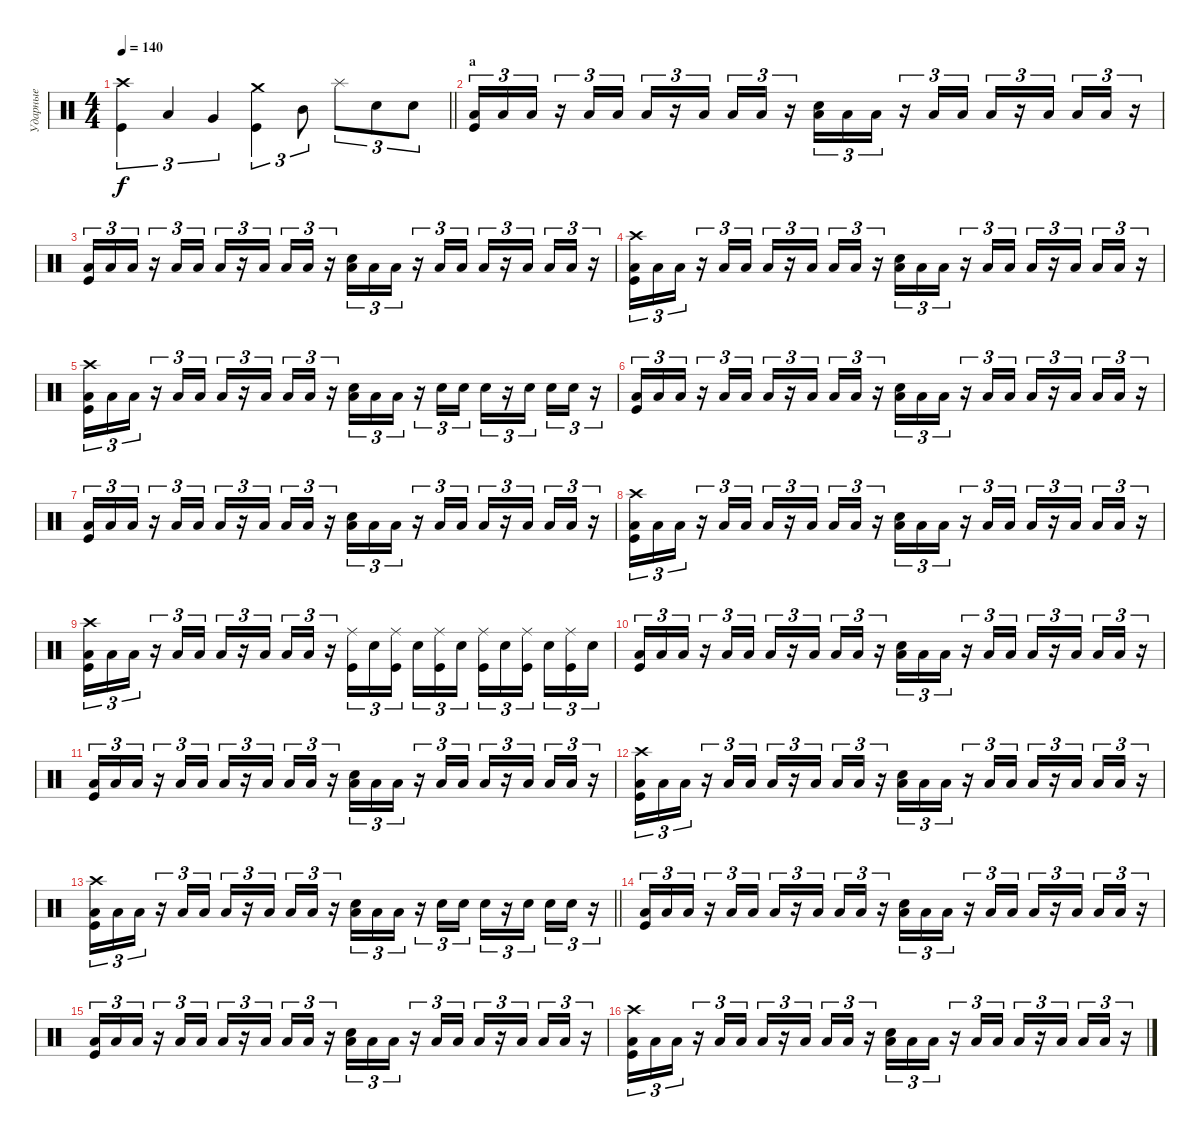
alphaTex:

\track ("Ударные" "Ударные") {instrument percussion}
\staff {score}
\articulation defaults
\ts (4 4)
\tempo 140
\clef neutral
\barLineRight lightlight
\ks c
("Crash high (hit)" "Kick (hit)").4{tu (3 2) dy f} "Low Tom (hit)".4{tu (3 2)} "Very Low Tom (hit)".4{tu (3 2)} ("Crash medium (hit)" "Kick (hit)").4{tu (3 2)} "Mid Tom (hit)".8{tu (3 2)} "Splash (hit)".8{tu (3 2)} "Electric Snare (hit)".8{tu (3 2)} "Electric Snare (hit)".8{tu (3 2)} |
\section ("" "a")
("Low Floor Tom (hit)" "Kick (hit)").16{tu (3 2)} "Low Floor Tom (hit)".16{tu (3 2)} "Low Floor Tom (hit)".16{tu (3 2)} r.16{tu (3 2)} "Low Floor Tom (hit)".16{tu (3 2)} "Low Floor Tom (hit)".16{tu (3 2)} "Low Floor Tom (hit)".16{tu (3 2)} r.16{tu (3 2)} "Low Floor Tom (hit)".16{tu (3 2) beam splitsecondary} "Low Floor Tom (hit)".16{tu (3 2)} "Low Floor Tom (hit)".16{tu (3 2)} r.16{tu (3 2)} ("Low Floor Tom (hit)" "Electric Snare (hit)").16{tu (3 2)} "Low Floor Tom (hit)".16{tu (3 2)} "Low Floor Tom (hit)".16{tu (3 2)} r.16{tu (3 2)} "Low Floor Tom (hit)".16{tu (3 2)} "Low Floor Tom (hit)".16{tu (3 2)} "Low Floor Tom (hit)".16{tu (3 2)} r.16{tu (3 2)} "Low Floor Tom (hit)".16{tu (3 2) beam splitsecondary} "Low Floor Tom (hit)".16{tu (3 2)} "Low Floor Tom (hit)".16{tu (3 2)} r.16{tu (3 2)} |
("Low Floor Tom (hit)" "Kick (hit)").16{tu (3 2)} "Low Floor Tom (hit)".16{tu (3 2)} "Low Floor Tom (hit)".16{tu (3 2)} r.16{tu (3 2)} "Low Floor Tom (hit)".16{tu (3 2)} "Low Floor Tom (hit)".16{tu (3 2)} "Low Floor Tom (hit)".16{tu (3 2)} r.16{tu (3 2)} "Low Floor Tom (hit)".16{tu (3 2) beam splitsecondary} "Low Floor Tom (hit)".16{tu (3 2)} "Low Floor Tom (hit)".16{tu (3 2)} r.16{tu (3 2)} ("Low Floor Tom (hit)" "Electric Snare (hit)").16{tu (3 2)} "Low Floor Tom (hit)".16{tu (3 2)} "Low Floor Tom (hit)".16{tu (3 2)} r.16{tu (3 2)} "Low Floor Tom (hit)".16{tu (3 2)} "Low Floor Tom (hit)".16{tu (3 2)} "Low Floor Tom (hit)".16{tu (3 2)} r.16{tu (3 2)} "Low Floor Tom (hit)".16{tu (3 2) beam splitsecondary} "Low Floor Tom (hit)".16{tu (3 2)} "Low Floor Tom (hit)".16{tu (3 2)} r.16{tu (3 2)} |
("Low Floor Tom (hit)" "Kick (hit)" "Crash high (hit)").16{tu (3 2)} "Low Floor Tom (hit)".16{tu (3 2)} "Low Floor Tom (hit)".16{tu (3 2)} r.16{tu (3 2)} "Low Floor Tom (hit)".16{tu (3 2)} "Low Floor Tom (hit)".16{tu (3 2)} "Low Floor Tom (hit)".16{tu (3 2)} r.16{tu (3 2)} "Low Floor Tom (hit)".16{tu (3 2) beam splitsecondary} "Low Floor Tom (hit)".16{tu (3 2)} "Low Floor Tom (hit)".16{tu (3 2)} r.16{tu (3 2)} ("Low Floor Tom (hit)" "Electric Snare (hit)").16{tu (3 2)} "Low Floor Tom (hit)".16{tu (3 2)} "Low Floor Tom (hit)".16{tu (3 2)} r.16{tu (3 2)} "Low Floor Tom (hit)".16{tu (3 2)} "Low Floor Tom (hit)".16{tu (3 2)} "Low Floor Tom (hit)".16{tu (3 2)} r.16{tu (3 2)} "Low Floor Tom (hit)".16{tu (3 2) beam splitsecondary} "Low Floor Tom (hit)".16{tu (3 2)} "Low Floor Tom (hit)".16{tu (3 2)} r.16{tu (3 2)} |
("Low Floor Tom (hit)" "Kick (hit)" "Crash high (hit)").16{tu (3 2)} "Low Floor Tom (hit)".16{tu (3 2)} "Low Floor Tom (hit)".16{tu (3 2)} r.16{tu (3 2)} "Low Floor Tom (hit)".16{tu (3 2)} "Low Floor Tom (hit)".16{tu (3 2)} "Low Floor Tom (hit)".16{tu (3 2)} r.16{tu (3 2)} "Low Floor Tom (hit)".16{tu (3 2) beam splitsecondary} "Low Floor Tom (hit)".16{tu (3 2)} "Low Floor Tom (hit)".16{tu (3 2)} r.16{tu (3 2)} ("Low Floor Tom (hit)" "Electric Snare (hit)").16{tu (3 2)} "Low Floor Tom (hit)".16{tu (3 2)} "Low Floor Tom (hit)".16{tu (3 2)} r.16{tu (3 2)} "Electric Snare (hit)".16{tu (3 2)} "Electric Snare (hit)".16{tu (3 2)} "Electric Snare (hit)".16{tu (3 2)} r.16{tu (3 2)} "Electric Snare (hit)".16{tu (3 2) beam splitsecondary} "Electric Snare (hit)".16{tu (3 2)} "Electric Snare (hit)".16{tu (3 2)} r.16{tu (3 2)} |
("Low Floor Tom (hit)" "Kick (hit)").16{tu (3 2)} "Low Floor Tom (hit)".16{tu (3 2)} "Low Floor Tom (hit)".16{tu (3 2)} r.16{tu (3 2)} "Low Floor Tom (hit)".16{tu (3 2)} "Low Floor Tom (hit)".16{tu (3 2)} "Low Floor Tom (hit)".16{tu (3 2)} r.16{tu (3 2)} "Low Floor Tom (hit)".16{tu (3 2) beam splitsecondary} "Low Floor Tom (hit)".16{tu (3 2)} "Low Floor Tom (hit)".16{tu (3 2)} r.16{tu (3 2)} ("Low Floor Tom (hit)" "Electric Snare (hit)").16{tu (3 2)} "Low Floor Tom (hit)".16{tu (3 2)} "Low Floor Tom (hit)".16{tu (3 2)} r.16{tu (3 2)} "Low Floor Tom (hit)".16{tu (3 2)} "Low Floor Tom (hit)".16{tu (3 2)} "Low Floor Tom (hit)".16{tu (3 2)} r.16{tu (3 2)} "Low Floor Tom (hit)".16{tu (3 2) beam splitsecondary} "Low Floor Tom (hit)".16{tu (3 2)} "Low Floor Tom (hit)".16{tu (3 2)} r.16{tu (3 2)} |
("Low Floor Tom (hit)" "Kick (hit)").16{tu (3 2)} "Low Floor Tom (hit)".16{tu (3 2)} "Low Floor Tom (hit)".16{tu (3 2)} r.16{tu (3 2)} "Low Floor Tom (hit)".16{tu (3 2)} "Low Floor Tom (hit)".16{tu (3 2)} "Low Floor Tom (hit)".16{tu (3 2)} r.16{tu (3 2)} "Low Floor Tom (hit)".16{tu (3 2) beam splitsecondary} "Low Floor Tom (hit)".16{tu (3 2)} "Low Floor Tom (hit)".16{tu (3 2)} r.16{tu (3 2)} ("Low Floor Tom (hit)" "Electric Snare (hit)").16{tu (3 2)} "Low Floor Tom (hit)".16{tu (3 2)} "Low Floor Tom (hit)".16{tu (3 2)} r.16{tu (3 2)} "Low Floor Tom (hit)".16{tu (3 2)} "Low Floor Tom (hit)".16{tu (3 2)} "Low Floor Tom (hit)".16{tu (3 2)} r.16{tu (3 2)} "Low Floor Tom (hit)".16{tu (3 2) beam splitsecondary} "Low Floor Tom (hit)".16{tu (3 2)} "Low Floor Tom (hit)".16{tu (3 2)} r.16{tu (3 2)} |
("Low Floor Tom (hit)" "Kick (hit)" "Crash high (hit)").16{tu (3 2)} "Low Floor Tom (hit)".16{tu (3 2)} "Low Floor Tom (hit)".16{tu (3 2)} r.16{tu (3 2)} "Low Floor Tom (hit)".16{tu (3 2)} "Low Floor Tom (hit)".16{tu (3 2)} "Low Floor Tom (hit)".16{tu (3 2)} r.16{tu (3 2)} "Low Floor Tom (hit)".16{tu (3 2) beam splitsecondary} "Low Floor Tom (hit)".16{tu (3 2)} "Low Floor Tom (hit)".16{tu (3 2)} r.16{tu (3 2)} ("Low Floor Tom (hit)" "Electric Snare (hit)").16{tu (3 2)} "Low Floor Tom (hit)".16{tu (3 2)} "Low Floor Tom (hit)".16{tu (3 2)} r.16{tu (3 2)} "Low Floor Tom (hit)".16{tu (3 2)} "Low Floor Tom (hit)".16{tu (3 2)} "Low Floor Tom (hit)".16{tu (3 2)} r.16{tu (3 2)} "Low Floor Tom (hit)".16{tu (3 2) beam splitsecondary} "Low Floor Tom (hit)".16{tu (3 2)} "Low Floor Tom (hit)".16{tu (3 2)} r.16{tu (3 2)} |
("Low Floor Tom (hit)" "Kick (hit)" "Crash high (hit)").16{tu (3 2)} "Low Floor Tom (hit)".16{tu (3 2)} "Low Floor Tom (hit)".16{tu (3 2)} r.16{tu (3 2)} "Low Floor Tom (hit)".16{tu (3 2)} "Low Floor Tom (hit)".16{tu (3 2)} "Low Floor Tom (hit)".16{tu (3 2)} r.16{tu (3 2)} "Low Floor Tom (hit)".16{tu (3 2) beam splitsecondary} "Low Floor Tom (hit)".16{tu (3 2)} "Low Floor Tom (hit)".16{tu (3 2)} r.16{tu (3 2)} ("Ride (middle)" "Kick (hit)").16{tu (3 2)} "Electric Snare (hit)".16{tu (3 2)} ("Ride (middle)" "Kick (hit)").16{tu (3 2) beam splitsecondary} "Electric Snare (hit)".16{tu (3 2)} ("Ride (middle)" "Kick (hit)").16{tu (3 2)} "Electric Snare (hit)".16{tu (3 2)} ("Ride (middle)" "Kick (hit)").16{tu (3 2)} "Electric Snare (hit)".16{tu (3 2)} ("Ride (middle)" "Kick (hit)").16{tu (3 2) beam splitsecondary} "Electric Snare (hit)".16{tu (3 2)} ("Ride (middle)" "Kick (hit)").16{tu (3 2)} "Electric Snare (hit)".16{tu (3 2)} |
("Low Floor Tom (hit)" "Kick (hit)").16{tu (3 2)} "Low Floor Tom (hit)".16{tu (3 2)} "Low Floor Tom (hit)".16{tu (3 2)} r.16{tu (3 2)} "Low Floor Tom (hit)".16{tu (3 2)} "Low Floor Tom (hit)".16{tu (3 2)} "Low Floor Tom (hit)".16{tu (3 2)} r.16{tu (3 2)} "Low Floor Tom (hit)".16{tu (3 2) beam splitsecondary} "Low Floor Tom (hit)".16{tu (3 2)} "Low Floor Tom (hit)".16{tu (3 2)} r.16{tu (3 2)} ("Low Floor Tom (hit)" "Electric Snare (hit)").16{tu (3 2)} "Low Floor Tom (hit)".16{tu (3 2)} "Low Floor Tom (hit)".16{tu (3 2)} r.16{tu (3 2)} "Low Floor Tom (hit)".16{tu (3 2)} "Low Floor Tom (hit)".16{tu (3 2)} "Low Floor Tom (hit)".16{tu (3 2)} r.16{tu (3 2)} "Low Floor Tom (hit)".16{tu (3 2) beam splitsecondary} "Low Floor Tom (hit)".16{tu (3 2)} "Low Floor Tom (hit)".16{tu (3 2)} r.16{tu (3 2)} |
("Low Floor Tom (hit)" "Kick (hit)").16{tu (3 2)} "Low Floor Tom (hit)".16{tu (3 2)} "Low Floor Tom (hit)".16{tu (3 2)} r.16{tu (3 2)} "Low Floor Tom (hit)".16{tu (3 2)} "Low Floor Tom (hit)".16{tu (3 2)} "Low Floor Tom (hit)".16{tu (3 2)} r.16{tu (3 2)} "Low Floor Tom (hit)".16{tu (3 2) beam splitsecondary} "Low Floor Tom (hit)".16{tu (3 2)} "Low Floor Tom (hit)".16{tu (3 2)} r.16{tu (3 2)} ("Low Floor Tom (hit)" "Electric Snare (hit)").16{tu (3 2)} "Low Floor Tom (hit)".16{tu (3 2)} "Low Floor Tom (hit)".16{tu (3 2)} r.16{tu (3 2)} "Low Floor Tom (hit)".16{tu (3 2)} "Low Floor Tom (hit)".16{tu (3 2)} "Low Floor Tom (hit)".16{tu (3 2)} r.16{tu (3 2)} "Low Floor Tom (hit)".16{tu (3 2) beam splitsecondary} "Low Floor Tom (hit)".16{tu (3 2)} "Low Floor Tom (hit)".16{tu (3 2)} r.16{tu (3 2)} |
("Low Floor Tom (hit)" "Kick (hit)" "Crash high (hit)").16{tu (3 2)} "Low Floor Tom (hit)".16{tu (3 2)} "Low Floor Tom (hit)".16{tu (3 2)} r.16{tu (3 2)} "Low Floor Tom (hit)".16{tu (3 2)} "Low Floor Tom (hit)".16{tu (3 2)} "Low Floor Tom (hit)".16{tu (3 2)} r.16{tu (3 2)} "Low Floor Tom (hit)".16{tu (3 2) beam splitsecondary} "Low Floor Tom (hit)".16{tu (3 2)} "Low Floor Tom (hit)".16{tu (3 2)} r.16{tu (3 2)} ("Low Floor Tom (hit)" "Electric Snare (hit)").16{tu (3 2)} "Low Floor Tom (hit)".16{tu (3 2)} "Low Floor Tom (hit)".16{tu (3 2)} r.16{tu (3 2)} "Low Floor Tom (hit)".16{tu (3 2)} "Low Floor Tom (hit)".16{tu (3 2)} "Low Floor Tom (hit)".16{tu (3 2)} r.16{tu (3 2)} "Low Floor Tom (hit)".16{tu (3 2) beam splitsecondary} "Low Floor Tom (hit)".16{tu (3 2)} "Low Floor Tom (hit)".16{tu (3 2)} r.16{tu (3 2)} |
\barLineRight lightlight
("Low Floor Tom (hit)" "Kick (hit)" "Crash high (hit)").16{tu (3 2)} "Low Floor Tom (hit)".16{tu (3 2)} "Low Floor Tom (hit)".16{tu (3 2)} r.16{tu (3 2)} "Low Floor Tom (hit)".16{tu (3 2)} "Low Floor Tom (hit)".16{tu (3 2)} "Low Floor Tom (hit)".16{tu (3 2)} r.16{tu (3 2)} "Low Floor Tom (hit)".16{tu (3 2) beam splitsecondary} "Low Floor Tom (hit)".16{tu (3 2)} "Low Floor Tom (hit)".16{tu (3 2)} r.16{tu (3 2)} ("Low Floor Tom (hit)" "Electric Snare (hit)").16{tu (3 2)} "Low Floor Tom (hit)".16{tu (3 2)} "Low Floor Tom (hit)".16{tu (3 2)} r.16{tu (3 2)} "Electric Snare (hit)".16{tu (3 2)} "Electric Snare (hit)".16{tu (3 2)} "Electric Snare (hit)".16{tu (3 2)} r.16{tu (3 2)} "Electric Snare (hit)".16{tu (3 2) beam splitsecondary} "Electric Snare (hit)".16{tu (3 2)} "Electric Snare (hit)".16{tu (3 2)} r.16{tu (3 2)} |
("Low Floor Tom (hit)" "Kick (hit)").16{tu (3 2)} "Low Floor Tom (hit)".16{tu (3 2)} "Low Floor Tom (hit)".16{tu (3 2)} r.16{tu (3 2)} "Low Floor Tom (hit)".16{tu (3 2)} "Low Floor Tom (hit)".16{tu (3 2)} "Low Floor Tom (hit)".16{tu (3 2)} r.16{tu (3 2)} "Low Floor Tom (hit)".16{tu (3 2) beam splitsecondary} "Low Floor Tom (hit)".16{tu (3 2)} "Low Floor Tom (hit)".16{tu (3 2)} r.16{tu (3 2)} ("Low Floor Tom (hit)" "Electric Snare (hit)").16{tu (3 2)} "Low Floor Tom (hit)".16{tu (3 2)} "Low Floor Tom (hit)".16{tu (3 2)} r.16{tu (3 2)} "Low Floor Tom (hit)".16{tu (3 2)} "Low Floor Tom (hit)".16{tu (3 2)} "Low Floor Tom (hit)".16{tu (3 2)} r.16{tu (3 2)} "Low Floor Tom (hit)".16{tu (3 2) beam splitsecondary} "Low Floor Tom (hit)".16{tu (3 2)} "Low Floor Tom (hit)".16{tu (3 2)} r.16{tu (3 2)} |
("Low Floor Tom (hit)" "Kick (hit)").16{tu (3 2)} "Low Floor Tom (hit)".16{tu (3 2)} "Low Floor Tom (hit)".16{tu (3 2)} r.16{tu (3 2)} "Low Floor Tom (hit)".16{tu (3 2)} "Low Floor Tom (hit)".16{tu (3 2)} "Low Floor Tom (hit)".16{tu (3 2)} r.16{tu (3 2)} "Low Floor Tom (hit)".16{tu (3 2) beam splitsecondary} "Low Floor Tom (hit)".16{tu (3 2)} "Low Floor Tom (hit)".16{tu (3 2)} r.16{tu (3 2)} ("Low Floor Tom (hit)" "Electric Snare (hit)").16{tu (3 2)} "Low Floor Tom (hit)".16{tu (3 2)} "Low Floor Tom (hit)".16{tu (3 2)} r.16{tu (3 2)} "Low Floor Tom (hit)".16{tu (3 2)} "Low Floor Tom (hit)".16{tu (3 2)} "Low Floor Tom (hit)".16{tu (3 2)} r.16{tu (3 2)} "Low Floor Tom (hit)".16{tu (3 2) beam splitsecondary} "Low Floor Tom (hit)".16{tu (3 2)} "Low Floor Tom (hit)".16{tu (3 2)} r.16{tu (3 2)} |
("Low Floor Tom (hit)" "Kick (hit)" "Crash high (hit)").16{tu (3 2)} "Low Floor Tom (hit)".16{tu (3 2)} "Low Floor Tom (hit)".16{tu (3 2)} r.16{tu (3 2)} "Low Floor Tom (hit)".16{tu (3 2)} "Low Floor Tom (hit)".16{tu (3 2)} "Low Floor Tom (hit)".16{tu (3 2)} r.16{tu (3 2)} "Low Floor Tom (hit)".16{tu (3 2) beam splitsecondary} "Low Floor Tom (hit)".16{tu (3 2)} "Low Floor Tom (hit)".16{tu (3 2)} r.16{tu (3 2)} ("Low Floor Tom (hit)" "Electric Snare (hit)").16{tu (3 2)} "Low Floor Tom (hit)".16{tu (3 2)} "Low Floor Tom (hit)".16{tu (3 2)} r.16{tu (3 2)} "Low Floor Tom (hit)".16{tu (3 2)} "Low Floor Tom (hit)".16{tu (3 2)} "Low Floor Tom (hit)".16{tu (3 2)} r.16{tu (3 2)} "Low Floor Tom (hit)".16{tu (3 2) beam splitsecondary} "Low Floor Tom (hit)".16{tu (3 2)} "Low Floor Tom (hit)".16{tu (3 2)} r.16{tu (3 2)}
